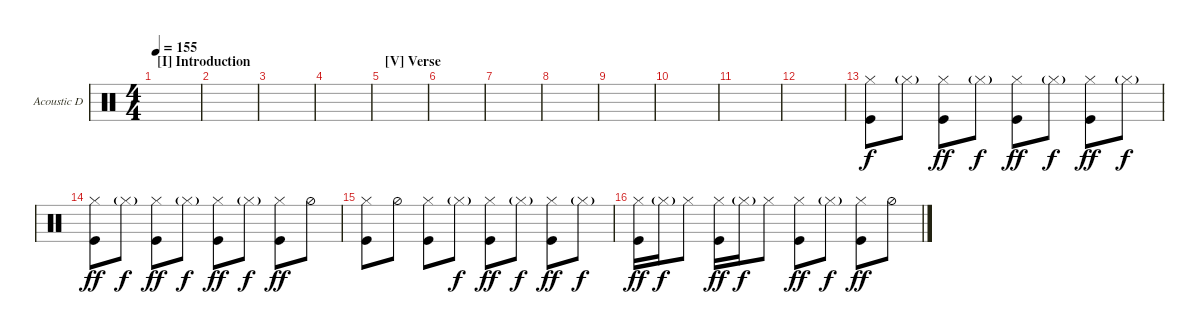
\defaultSystemsLayout 4
\bracketExtendMode groupsimilarinstruments
\firstSystemTrackNameOrientation horizontal
\otherSystemsTrackNameOrientation horizontal
\track ("Acoustic Drums" "Acoustic D") {instrument percussion}
\staff {score}
\articulation defaults
\ts (4 4)
\section ("I" "Introduction")
\tempo 155
\clef neutral
\scale
0.474178
\ks c
|
|
|
|
\section ("V" "Verse")
|
|
|
|
|
|
|
|
("Kick (hit)" "Hi-Hat (closed)").8 "Hi-Hat (closed)"{g}.8{dy f} ("Kick (hit)" "Hi-Hat (closed)").8{dy ff} "Hi-Hat (closed)"{g}.8{dy f} ("Kick (hit)" "Hi-Hat (closed)").8{dy ff} "Hi-Hat (closed)"{g}.8{dy f} ("Kick (hit)" "Hi-Hat (closed)").8{dy ff} "Hi-Hat (closed)"{g}.8{dy f} |
("Kick (hit)" "Hi-Hat (closed)").8{dy ff} "Hi-Hat (closed)"{g}.8{dy f} ("Kick (hit)" "Hi-Hat (closed)").8{dy ff} "Hi-Hat (closed)"{g}.8{dy f} ("Kick (hit)" "Hi-Hat (closed)").8{dy ff} "Hi-Hat (closed)"{g}.8{dy f} ("Kick (hit)" "Hi-Hat (closed)").8{dy ff} "Hi-Hat (half)".8 |
("Kick (hit)" "Hi-Hat (closed)").8 "Hi-Hat (half)".8 ("Kick (hit)" "Hi-Hat (closed)").8 "Hi-Hat (closed)"{g}.8{dy f} ("Kick (hit)" "Hi-Hat (closed)").8{dy ff} "Hi-Hat (closed)"{g}.8{dy f} ("Kick (hit)" "Hi-Hat (closed)").8{dy ff} "Hi-Hat (closed)"{g}.8{dy f} |
("Kick (hit)" "Hi-Hat (closed)").16{dy ff} "Hi-Hat (closed)"{g}.16{dy f} "Hi-Hat (closed)".8 ("Kick (hit)" "Hi-Hat (closed)").16{dy ff} "Hi-Hat (closed)"{g}.16{dy f} "Hi-Hat (closed)".8 ("Kick (hit)" "Hi-Hat (closed)").8{dy ff} "Hi-Hat (closed)"{g}.8{dy f} ("Kick (hit)" "Hi-Hat (closed)").8{dy ff} "Hi-Hat (half)".8
